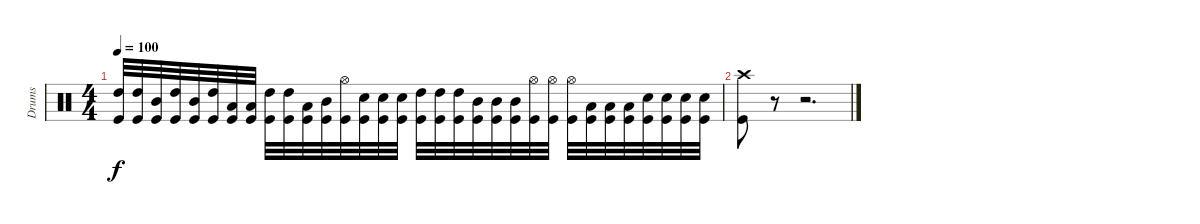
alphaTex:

\track ("Drums" "Drums") {instrument percussion}
\staff {score}
\articulation defaults
\ts (4 4)
\tempo 100
\clef neutral
\ks c
("High Tom (hit)" "Kick (hit)").32{dy f} ("High Tom (hit)" "Kick (hit)").32 ("Mid Tom (hit)" "Kick (hit)").32 ("High Tom (hit)" "Kick (hit)").32 ("Mid Tom (hit)" "Kick (hit)").32 ("High Tom (hit)" "Kick (hit)").32 ("Low Tom (hit)" "Kick (hit)").32 ("Low Tom (hit)" "Kick (hit)").32 ("High Tom (hit)" "Kick (hit)").32 ("High Tom (hit)" "Kick (hit)").32 ("Low Tom (hit)" "Kick (hit)").32 ("Mid Tom (hit)" "Kick (hit)").32 ("Hi-Hat (open)" "Kick (hit)").32 ("Snare (hit) 2" "Kick (hit)").32 ("Snare (hit) 2" "Kick (hit)").32 ("Snare (hit) 2" "Kick (hit)").32 ("High Tom (hit)" "Kick (hit)").32 ("High Tom (hit)" "Kick (hit)").32 ("High Tom (hit)" "Kick (hit)").32 ("Mid Tom (hit)" "Kick (hit)").32 ("Mid Tom (hit)" "Kick (hit)").32 ("Mid Tom (hit)" "Kick (hit)").32 ("Hi-Hat (open)" "Kick (hit)").32 ("Hi-Hat (open)" "Kick (hit)").32 ("Hi-Hat (open)" "Kick (hit)").32 ("Low Tom (hit)" "Kick (hit)").32 ("Low Tom (hit)" "Kick (hit)").32 ("Low Tom (hit)" "Kick (hit)").32 ("Snare (hit) 2" "Kick (hit)").32 ("Snare (hit) 2" "Kick (hit)").32 ("Snare (hit) 2" "Kick (hit)").32 ("Snare (hit) 2" "Kick (hit)").32 |
("Crash high (hit)" "Kick (hit)").8 r.8 r.2{d}
